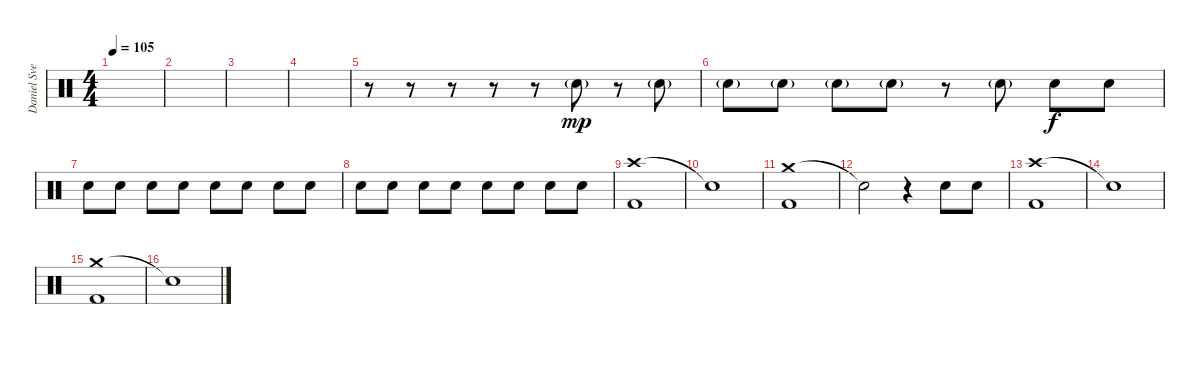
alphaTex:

\track ("Daniel Svensson" "Daniel Sve") {instrument percussion}
\staff {score}
\articulation defaults
\ts (4 4)
\tempo 105
\clef neutral
\ks c
|
|
|
|
r.8 r.8 r.8 r.8 r.8 "Snare (hit) 2"{g}.8{dy mp} r.8 "Snare (hit) 2"{g}.8 |
"Snare (hit) 2"{g}.8 "Snare (hit) 2"{g}.8 "Snare (hit) 2"{g}.8 "Snare (hit) 2"{g}.8 r.8 "Snare (hit) 2"{g}.8 "Snare (hit) 2".8{dy f volume 8} "Snare (hit) 2".8 |
"Snare (hit) 2".8{volume 9} "Snare (hit) 2".8 "Snare (hit) 2".8{volume 10} "Snare (hit) 2".8 "Snare (hit) 2".8{volume 12} "Snare (hit) 2".8 "Snare (hit) 2".8{volume 14} "Snare (hit) 2".8 |
"Snare (hit) 2".8{volume 16} "Snare (hit) 2".8 "Snare (hit) 2".8 "Snare (hit) 2".8 "Snare (hit) 2".8 "Snare (hit) 2".8 "Snare (hit) 2".8 "Snare (hit) 2".8 |
("Crash high (hit)" "Kick (hit) 2").1 |
"Snare (hit)"{t}.1 |
("Crash medium (hit)" "Kick (hit) 2").1 |
"Snare (hit)"{t}.2 r.4 "Electric Snare (hit)".8 "Electric Snare (hit)".8 |
("Crash high (hit)" "Kick (hit) 2").1 |
"Snare (hit)"{t}.1 |
("Crash medium (hit)" "Kick (hit) 2").1 |
"Snare (hit)"{t}.1
